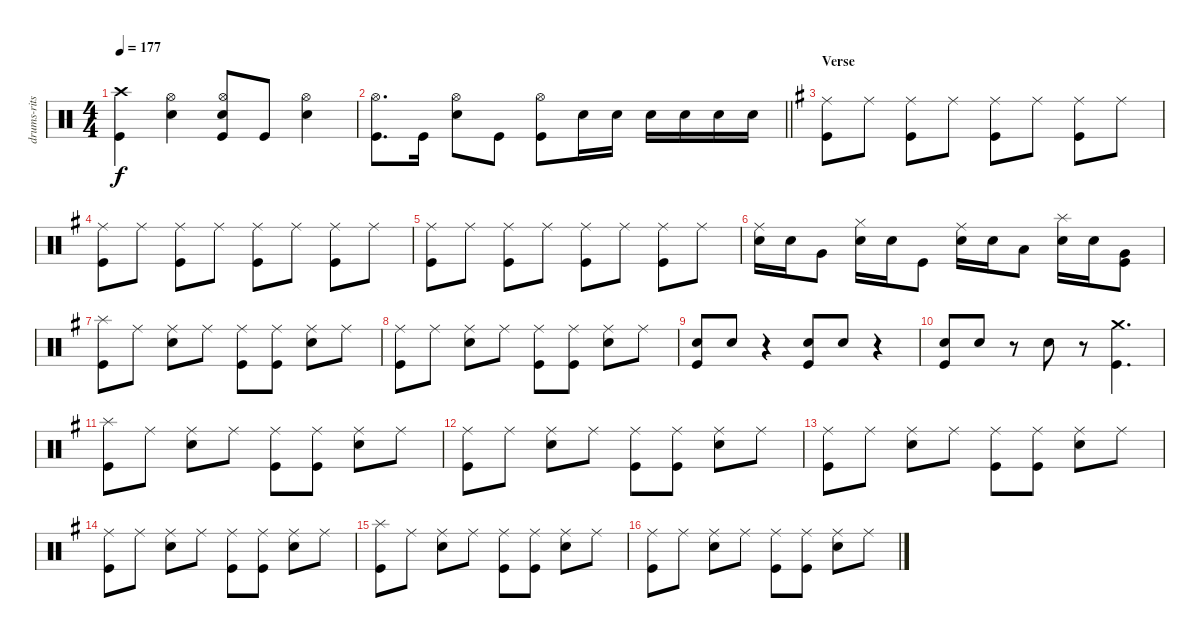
\track ("drums-ritsu takana" "drums-rits") {instrument percussion}
\staff {score}
\articulation defaults
\ts (4 4)
\tempo 177
\clef neutral
\ks c
("Crash high (hit)" "Kick (hit)").4{dy f} ("Hi-Hat (open)" "Snare (hit) 2").4 ("Hi-Hat (open)" "Snare (hit) 2" "Kick (hit)").8 "Kick (hit)".8 ("Hi-Hat (open)" "Snare (hit) 2").4 |
\barLineRight lightlight
("Hi-Hat (open)" "Kick (hit)").8{d} "Kick (hit)".16 ("Hi-Hat (open)" "Snare (hit) 2").8 "Kick (hit)".8 ("Hi-Hat (open)" "Kick (hit)").8 "Snare (hit) 2".16 "Snare (hit) 2".16 "Snare (hit) 2".16 "Snare (hit) 2".16 "Snare (hit) 2".16 "Snare (hit) 2".16 |
\section ("" "Verse")
\ks eminor
("Kick (hit)" "Ride (middle)").8 "Ride (middle)".8 ("Kick (hit)" "Ride (middle)").8 "Ride (middle)".8 ("Kick (hit)" "Ride (middle)").8 "Ride (middle)".8 ("Kick (hit)" "Ride (middle)").8 "Ride (middle)".8 |
("Kick (hit)" "Ride (middle)").8 "Ride (middle)".8 ("Kick (hit)" "Ride (middle)").8 "Ride (middle)".8 ("Kick (hit)" "Ride (middle)").8 "Ride (middle)".8 ("Kick (hit)" "Ride (middle)").8 "Ride (middle)".8 |
("Kick (hit)" "Ride (middle)").8 "Ride (middle)".8 ("Kick (hit)" "Ride (middle)").8 "Ride (middle)".8 ("Kick (hit)" "Ride (middle)").8 "Ride (middle)".8 ("Kick (hit)" "Ride (middle)").8 "Ride (middle)".8 |
("Snare (hit) 2" "Ride (middle)").16 "Snare (hit) 2".16 "Very Low Tom (hit)".8 ("Snare (hit) 2" "Hi-Hat (closed)").16 "Snare (hit) 2".16 "Kick (hit)".8 ("Snare (hit) 2" "Ride (middle)").16 "Snare (hit) 2".16 "Low Tom (hit)".8 ("Snare (hit) 2" "Splash (hit)").16 "Snare (hit) 2".16 ("Kick (hit)" "Very Low Tom (hit)").8 |
("Kick (hit)" "Splash (hit)").8 "Ride (middle)".8 ("Ride (middle)" "Snare (hit) 2").8 "Ride (middle)".8 ("Kick (hit)" "Ride (middle)").8 ("Ride (middle)" "Kick (hit)").8 ("Ride (middle)" "Snare (hit) 2").8 "Ride (middle)".8 |
("Kick (hit)" "Ride (middle)").8 "Ride (middle)".8 ("Ride (middle)" "Snare (hit) 2").8 "Ride (middle)".8 ("Kick (hit)" "Ride (middle)").8 ("Ride (middle)" "Kick (hit)").8 ("Ride (middle)" "Snare (hit) 2").8 "Ride (middle)".8 |
("Snare (hit) 2" "Kick (hit)").8 "Snare (hit) 2".8 r.4 ("Snare (hit) 2" "Kick (hit)").8 "Snare (hit) 2".8 r.4 |
("Snare (hit) 2" "Kick (hit)").8 "Snare (hit) 2".8 r.8 "Snare (hit) 2".8 r.8 ("Kick (hit)" "Crash medium (hit)").4{d} |
("Kick (hit)" "Splash (hit)").8 "Ride (middle)".8 ("Ride (middle)" "Snare (hit) 2").8 "Ride (middle)".8 ("Kick (hit)" "Ride (middle)").8 ("Ride (middle)" "Kick (hit)").8 ("Ride (middle)" "Snare (hit) 2").8 "Ride (middle)".8 |
("Kick (hit)" "Ride (middle)").8 "Ride (middle)".8 ("Ride (middle)" "Snare (hit) 2").8 "Ride (middle)".8 ("Kick (hit)" "Ride (middle)").8 ("Ride (middle)" "Kick (hit)").8 ("Ride (middle)" "Snare (hit) 2").8 "Ride (middle)".8 |
("Kick (hit)" "Ride (middle)").8 "Ride (middle)".8 ("Ride (middle)" "Snare (hit) 2").8 "Ride (middle)".8 ("Kick (hit)" "Ride (middle)").8 ("Ride (middle)" "Kick (hit)").8 ("Ride (middle)" "Snare (hit) 2").8 "Ride (middle)".8 |
("Kick (hit)" "Ride (middle)").8 "Ride (middle)".8 ("Ride (middle)" "Snare (hit) 2").8 "Ride (middle)".8 ("Kick (hit)" "Ride (middle)").8 ("Ride (middle)" "Kick (hit)").8 ("Ride (middle)" "Snare (hit) 2").8 "Ride (middle)".8 |
("Kick (hit)" "Splash (hit)").8 "Ride (middle)".8 ("Ride (middle)" "Snare (hit) 2").8 "Ride (middle)".8 ("Kick (hit)" "Ride (middle)").8 ("Ride (middle)" "Kick (hit)").8 ("Ride (middle)" "Snare (hit) 2").8 "Ride (middle)".8 |
("Kick (hit)" "Ride (middle)").8 "Ride (middle)".8 ("Ride (middle)" "Snare (hit) 2").8 "Ride (middle)".8 ("Kick (hit)" "Ride (middle)").8 ("Ride (middle)" "Kick (hit)").8 ("Ride (middle)" "Snare (hit) 2").8 "Ride (middle)".8
